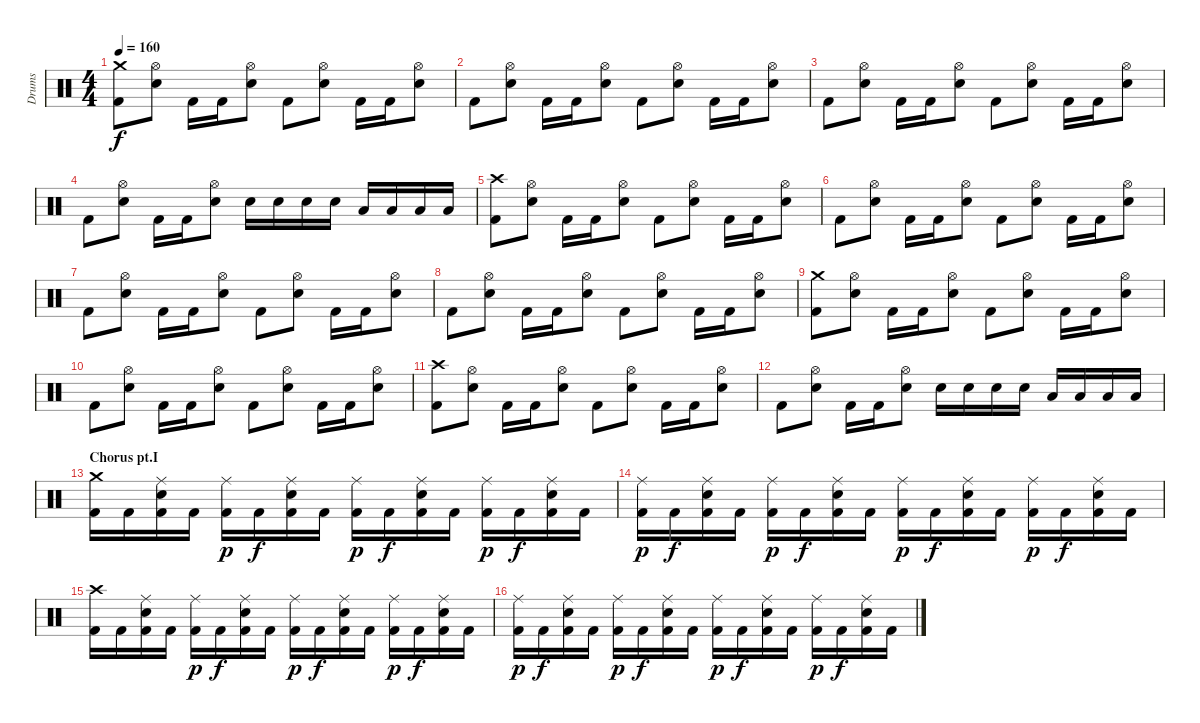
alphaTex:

\track ("Drums" "Drums") {instrument percussion}
\staff {score}
\articulation defaults
\ts (4 4)
\tempo 160
\clef neutral
\ks c
("Crash medium (hit)" "Kick (hit) 2").8{dy f} ("Hi-Hat (open)" "Snare (hit) 2").8 "Kick (hit) 2".16 "Kick (hit) 2".16 ("Hi-Hat (open)" "Snare (hit) 2").8 "Kick (hit) 2".8 ("Hi-Hat (open)" "Snare (hit) 2").8 "Kick (hit) 2".16 "Kick (hit) 2".16 ("Hi-Hat (open)" "Snare (hit) 2").8 |
"Kick (hit) 2".8 ("Hi-Hat (open)" "Snare (hit) 2").8 "Kick (hit) 2".16 "Kick (hit) 2".16 ("Hi-Hat (open)" "Snare (hit) 2").8 "Kick (hit) 2".8 ("Hi-Hat (open)" "Snare (hit) 2").8 "Kick (hit) 2".16 "Kick (hit) 2".16 ("Hi-Hat (open)" "Snare (hit) 2").8 |
"Kick (hit) 2".8 ("Hi-Hat (open)" "Snare (hit) 2").8 "Kick (hit) 2".16 "Kick (hit) 2".16 ("Hi-Hat (open)" "Snare (hit) 2").8 "Kick (hit) 2".8 ("Hi-Hat (open)" "Snare (hit) 2").8 "Kick (hit) 2".16 "Kick (hit) 2".16 ("Hi-Hat (open)" "Snare (hit) 2").8 |
"Kick (hit) 2".8 ("Hi-Hat (open)" "Snare (hit) 2").8 "Kick (hit) 2".16 "Kick (hit) 2".16 ("Hi-Hat (open)" "Snare (hit) 2").8 "Snare (hit) 2".16 "Snare (hit) 2".16 "Snare (hit) 2".16 "Snare (hit) 2".16 "Low Tom (hit)".16 "Low Tom (hit)".16 "Low Tom (hit)".16 "Low Tom (hit)".16 |
("Crash high (hit)" "Kick (hit) 2").8 ("Hi-Hat (open)" "Snare (hit) 2").8 "Kick (hit) 2".16 "Kick (hit) 2".16 ("Hi-Hat (open)" "Snare (hit) 2").8 "Kick (hit) 2".8 ("Hi-Hat (open)" "Snare (hit) 2").8 "Kick (hit) 2".16 "Kick (hit) 2".16 ("Hi-Hat (open)" "Snare (hit) 2").8 |
"Kick (hit) 2".8 ("Hi-Hat (open)" "Snare (hit) 2").8 "Kick (hit) 2".16 "Kick (hit) 2".16 ("Hi-Hat (open)" "Snare (hit) 2").8 "Kick (hit) 2".8 ("Hi-Hat (open)" "Snare (hit) 2").8 "Kick (hit) 2".16 "Kick (hit) 2".16 ("Hi-Hat (open)" "Snare (hit) 2").8 |
"Kick (hit) 2".8 ("Hi-Hat (open)" "Snare (hit) 2").8 "Kick (hit) 2".16 "Kick (hit) 2".16 ("Hi-Hat (open)" "Snare (hit) 2").8 "Kick (hit) 2".8 ("Hi-Hat (open)" "Snare (hit) 2").8 "Kick (hit) 2".16 "Kick (hit) 2".16 ("Hi-Hat (open)" "Snare (hit) 2").8 |
"Kick (hit) 2".8 ("Hi-Hat (open)" "Snare (hit) 2").8 "Kick (hit) 2".16 "Kick (hit) 2".16 ("Hi-Hat (open)" "Snare (hit) 2").8 "Kick (hit) 2".8 ("Hi-Hat (open)" "Snare (hit) 2").8 "Kick (hit) 2".16 "Kick (hit) 2".16 ("Hi-Hat (open)" "Snare (hit) 2").8 |
("Crash medium (hit)" "Kick (hit) 2").8 ("Hi-Hat (open)" "Snare (hit) 2").8 "Kick (hit) 2".16 "Kick (hit) 2".16 ("Hi-Hat (open)" "Snare (hit) 2").8 "Kick (hit) 2".8 ("Hi-Hat (open)" "Snare (hit) 2").8 "Kick (hit) 2".16 "Kick (hit) 2".16 ("Hi-Hat (open)" "Snare (hit) 2").8 |
"Kick (hit) 2".8 ("Hi-Hat (open)" "Snare (hit) 2").8 "Kick (hit) 2".16 "Kick (hit) 2".16 ("Hi-Hat (open)" "Snare (hit) 2").8 "Kick (hit) 2".8 ("Hi-Hat (open)" "Snare (hit) 2").8 "Kick (hit) 2".16 "Kick (hit) 2".16 ("Hi-Hat (open)" "Snare (hit) 2").8 |
("Crash high (hit)" "Kick (hit) 2").8 ("Hi-Hat (open)" "Snare (hit) 2").8 "Kick (hit) 2".16 "Kick (hit) 2".16 ("Hi-Hat (open)" "Snare (hit) 2").8 "Kick (hit) 2".8 ("Hi-Hat (open)" "Snare (hit) 2").8 "Kick (hit) 2".16 "Kick (hit) 2".16 ("Hi-Hat (open)" "Snare (hit) 2").8 |
"Kick (hit) 2".8 ("Hi-Hat (open)" "Snare (hit) 2").8 "Kick (hit) 2".16 "Kick (hit) 2".16 ("Hi-Hat (open)" "Snare (hit) 2").8 "Snare (hit) 2".16 "Snare (hit) 2".16 "Snare (hit) 2".16 "Snare (hit) 2".16 "Low Tom (hit)".16 "Low Tom (hit)".16 "Low Tom (hit)".16 "Low Tom (hit)".16 |
\section ("" "Chorus pt.I")
("Crash medium (hit)" "Kick (hit) 2").16 "Kick (hit) 2".16 ("Ride (middle)" "Snare (hit) 2" "Kick (hit) 2").16 "Kick (hit) 2".16 ("Ride (middle)" "Kick (hit) 2").16{dy p} "Kick (hit) 2".16{dy f} ("Ride (middle)" "Snare (hit) 2" "Kick (hit) 2").16 "Kick (hit) 2".16 ("Ride (middle)" "Kick (hit) 2").16{dy p} "Kick (hit) 2".16{dy f} ("Ride (middle)" "Snare (hit) 2" "Kick (hit) 2").16 "Kick (hit) 2".16 ("Ride (middle)" "Kick (hit) 2").16{dy p} "Kick (hit) 2".16{dy f} ("Ride (middle)" "Snare (hit) 2" "Kick (hit) 2").16 "Kick (hit) 2".16 |
("Ride (middle)" "Kick (hit) 2").16{dy p} "Kick (hit) 2".16{dy f} ("Ride (middle)" "Snare (hit) 2" "Kick (hit) 2").16 "Kick (hit) 2".16 ("Ride (middle)" "Kick (hit) 2").16{dy p} "Kick (hit) 2".16{dy f} ("Ride (middle)" "Snare (hit) 2" "Kick (hit) 2").16 "Kick (hit) 2".16 ("Ride (middle)" "Kick (hit) 2").16{dy p} "Kick (hit) 2".16{dy f} ("Ride (middle)" "Snare (hit) 2" "Kick (hit) 2").16 "Kick (hit) 2".16 ("Ride (middle)" "Kick (hit) 2").16{dy p} "Kick (hit) 2".16{dy f} ("Ride (middle)" "Snare (hit) 2" "Kick (hit) 2").16 "Kick (hit) 2".16 |
("Crash high (hit)" "Kick (hit) 2").16 "Kick (hit) 2".16 ("Ride (middle)" "Snare (hit) 2" "Kick (hit) 2").16 "Kick (hit) 2".16 ("Ride (middle)" "Kick (hit) 2").16{dy p} "Kick (hit) 2".16{dy f} ("Ride (middle)" "Snare (hit) 2" "Kick (hit) 2").16 "Kick (hit) 2".16 ("Ride (middle)" "Kick (hit) 2").16{dy p} "Kick (hit) 2".16{dy f} ("Ride (middle)" "Snare (hit) 2" "Kick (hit) 2").16 "Kick (hit) 2".16 ("Ride (middle)" "Kick (hit) 2").16{dy p} "Kick (hit) 2".16{dy f} ("Ride (middle)" "Snare (hit) 2" "Kick (hit) 2").16 "Kick (hit) 2".16 |
("Ride (middle)" "Kick (hit) 2").16{dy p} "Kick (hit) 2".16{dy f} ("Ride (middle)" "Snare (hit) 2" "Kick (hit) 2").16 "Kick (hit) 2".16 ("Ride (middle)" "Kick (hit) 2").16{dy p} "Kick (hit) 2".16{dy f} ("Ride (middle)" "Snare (hit) 2" "Kick (hit) 2").16 "Kick (hit) 2".16 ("Ride (middle)" "Kick (hit) 2").16{dy p} "Kick (hit) 2".16{dy f} ("Ride (middle)" "Snare (hit) 2" "Kick (hit) 2").16 "Kick (hit) 2".16 ("Ride (middle)" "Kick (hit) 2").16{dy p} "Kick (hit) 2".16{dy f} ("Ride (middle)" "Snare (hit) 2" "Kick (hit) 2").16 "Kick (hit) 2".16
